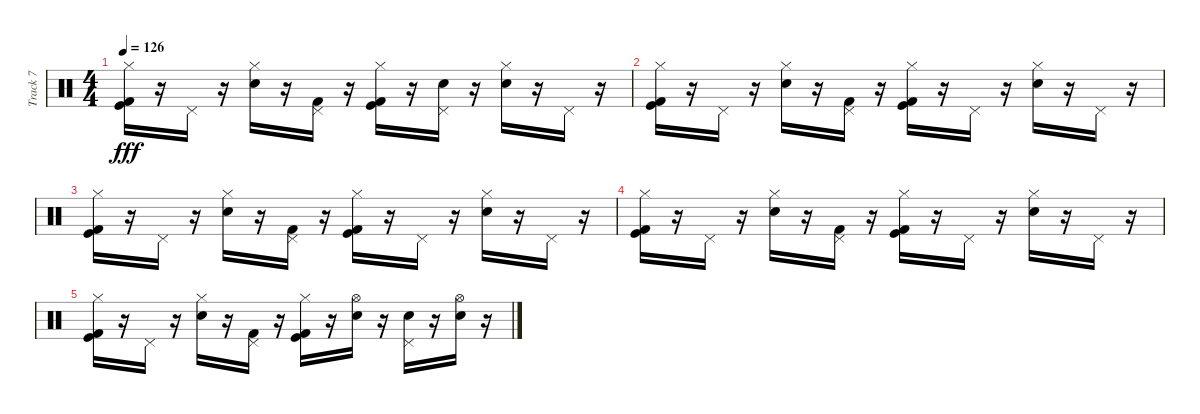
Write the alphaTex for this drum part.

\track ("Track 7" "Track 7") {instrument percussion}
\staff {score}
\articulation defaults
\ts (4 4)
\tempo 126
\clef neutral
\ks c
("Hi-Hat (closed)" "Kick (hit)" "Kick (hit) 2").16{dy fff} r.16 "Pedal Hi-Hat (hit)".16 r.16 ("Hi-Hat (closed)" "Electric Snare (hit)").16 r.16 ("Pedal Hi-Hat (hit)" "Kick (hit) 2").16 r.16 ("Hi-Hat (closed)" "Kick (hit)" "Kick (hit) 2").16 r.16 ("Electric Snare (hit)" "Pedal Hi-Hat (hit)").16 r.16 ("Hi-Hat (closed)" "Electric Snare (hit)").16 r.16 "Pedal Hi-Hat (hit)".16 r.16 |
("Kick (hit) 2" "Kick (hit)" "Hi-Hat (closed)").16 r.16 "Pedal Hi-Hat (hit)".16 r.16 ("Electric Snare (hit)" "Hi-Hat (closed)").16 r.16 ("Kick (hit) 2" "Pedal Hi-Hat (hit)").16 r.16 ("Kick (hit) 2" "Kick (hit)" "Hi-Hat (closed)").16 r.16 "Pedal Hi-Hat (hit)".16 r.16 ("Electric Snare (hit)" "Hi-Hat (closed)").16 r.16 "Pedal Hi-Hat (hit)".16 r.16 |
("Hi-Hat (closed)" "Kick (hit)" "Kick (hit) 2").16 r.16 "Pedal Hi-Hat (hit)".16 r.16 ("Hi-Hat (closed)" "Electric Snare (hit)").16 r.16 ("Pedal Hi-Hat (hit)" "Kick (hit) 2").16 r.16 ("Hi-Hat (closed)" "Kick (hit)" "Kick (hit) 2").16 r.16 "Pedal Hi-Hat (hit)".16 r.16 ("Hi-Hat (closed)" "Electric Snare (hit)").16 r.16 "Pedal Hi-Hat (hit)".16 r.16 |
("Hi-Hat (closed)" "Kick (hit)" "Kick (hit) 2").16 r.16 "Pedal Hi-Hat (hit)".16 r.16 ("Hi-Hat (closed)" "Electric Snare (hit)").16 r.16 ("Pedal Hi-Hat (hit)" "Kick (hit) 2").16 r.16 ("Hi-Hat (closed)" "Kick (hit)" "Kick (hit) 2").16 r.16 "Pedal Hi-Hat (hit)".16 r.16 ("Hi-Hat (closed)" "Electric Snare (hit)").16 r.16 "Pedal Hi-Hat (hit)".16 r.16 |
("Kick (hit) 2" "Kick (hit)" "Hi-Hat (closed)").16 r.16 "Pedal Hi-Hat (hit)".16 r.16 ("Electric Snare (hit)" "Hi-Hat (closed)").16 r.16 ("Kick (hit) 2" "Pedal Hi-Hat (hit)").16 r.16 ("Kick (hit) 2" "Kick (hit)" "Hi-Hat (closed)").16 r.16 ("Hi-Hat (open)" "Electric Snare (hit)").16 r.16 ("Pedal Hi-Hat (hit)" "Electric Snare (hit)").16 r.16 ("Hi-Hat (open)" "Electric Snare (hit)").16 r.16
